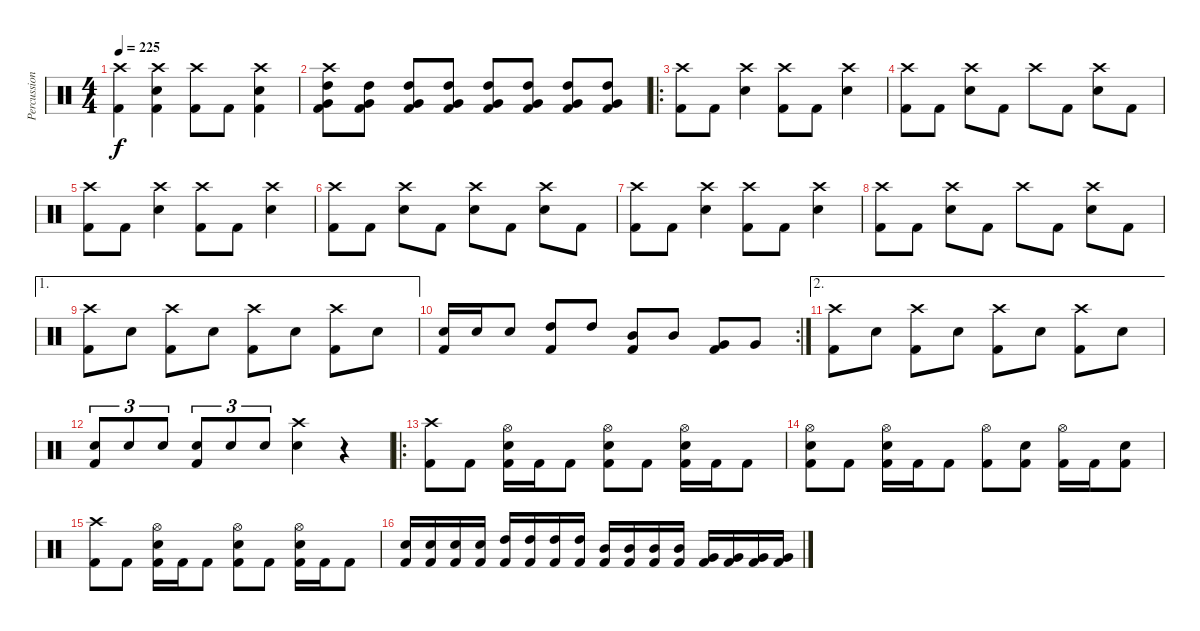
\track ("Percussion" "Percussion") {instrument percussion}
\staff {score}
\articulation defaults
\ts (4 4)
\tempo 225
\clef neutral
\ks c
("Crash high (hit)" "Kick (hit) 2").4{dy f} ("Crash high (hit)" "Snare (hit) 2" "Kick (hit) 2").4 ("Crash high (hit)" "Kick (hit) 2").8 "Kick (hit) 2".8 ("Crash high (hit)" "Snare (hit) 2" "Kick (hit) 2").4 |
("Crash high (hit)" "High Tom (hit)" "Very Low Tom (hit)" "Kick (hit) 2").8 ("High Tom (hit)" "Very Low Tom (hit)" "Kick (hit) 2").8 ("High Tom (hit)" "Very Low Tom (hit)" "Kick (hit) 2").8 ("High Tom (hit)" "Very Low Tom (hit)" "Kick (hit) 2").8 ("High Tom (hit)" "Very Low Tom (hit)" "Kick (hit) 2").8 ("High Tom (hit)" "Very Low Tom (hit)" "Kick (hit) 2").8 ("High Tom (hit)" "Very Low Tom (hit)" "Kick (hit) 2").8 ("High Tom (hit)" "Very Low Tom (hit)" "Kick (hit) 2").8 |
\ro
("Crash high (hit)" "Kick (hit) 2").8 "Kick (hit) 2".8 ("Crash high (hit)" "Snare (hit) 2").4 ("Crash high (hit)" "Kick (hit) 2").8 "Kick (hit) 2".8 ("Crash high (hit)" "Snare (hit) 2").4 |
("Crash high (hit)" "Kick (hit) 2").8 "Kick (hit) 2".8 ("Crash high (hit)" "Snare (hit) 2").8 "Kick (hit) 2".8 "Crash high (hit)".8 "Kick (hit) 2".8 ("Crash high (hit)" "Snare (hit) 2").8 "Kick (hit) 2".8 |
("Crash high (hit)" "Kick (hit) 2").8 "Kick (hit) 2".8 ("Crash high (hit)" "Snare (hit) 2").4 ("Crash high (hit)" "Kick (hit) 2").8 "Kick (hit) 2".8 ("Crash high (hit)" "Snare (hit) 2").4 |
("Crash high (hit)" "Kick (hit) 2").8 "Kick (hit) 2".8 ("Crash high (hit)" "Snare (hit) 2").8 "Kick (hit) 2".8 ("Crash high (hit)" "Snare (hit) 2").8 "Kick (hit) 2".8 ("Crash high (hit)" "Snare (hit) 2").8 "Kick (hit) 2".8 |
("Crash high (hit)" "Kick (hit) 2").8 "Kick (hit) 2".8 ("Crash high (hit)" "Snare (hit) 2").4 ("Crash high (hit)" "Kick (hit) 2").8 "Kick (hit) 2".8 ("Crash high (hit)" "Snare (hit) 2").4 |
("Crash high (hit)" "Kick (hit) 2").8 "Kick (hit) 2".8 ("Crash high (hit)" "Snare (hit) 2").8 "Kick (hit) 2".8 "Crash high (hit)".8 "Kick (hit) 2".8 ("Crash high (hit)" "Snare (hit) 2").8 "Kick (hit) 2".8 |
\ae 1
("Crash high (hit)" "Kick (hit) 2").8 "Snare (hit) 2".8 ("Crash high (hit)" "Kick (hit) 2").8 "Snare (hit) 2".8 ("Crash high (hit)" "Kick (hit) 2").8 "Snare (hit) 2".8 ("Crash high (hit)" "Kick (hit) 2").8 "Snare (hit) 2".8 |
\rc 2
("Snare (hit) 2" "Kick (hit) 2").16 "Snare (hit) 2".16 "Snare (hit) 2".8 ("High Tom (hit)" "Kick (hit) 2").8 "High Tom (hit)".8 ("Mid Tom (hit)" "Kick (hit) 2").8 "Mid Tom (hit)".8 ("Very Low Tom (hit)" "Kick (hit) 2").8 "Very Low Tom (hit)".8 |
\ae 2
("Crash high (hit)" "Kick (hit) 2").8 "Snare (hit) 2".8 ("Crash high (hit)" "Kick (hit) 2").8 "Snare (hit) 2".8 ("Crash high (hit)" "Kick (hit) 2").8 "Snare (hit) 2".8 ("Crash high (hit)" "Kick (hit) 2").8 "Snare (hit) 2".8 |
("Snare (hit) 2" "Kick (hit) 2").8{tu (3 2)} "Snare (hit) 2".8{tu (3 2)} "Snare (hit) 2".8{tu (3 2)} ("Snare (hit) 2" "Kick (hit) 2").8{tu (3 2)} "Snare (hit) 2".8{tu (3 2)} "Snare (hit) 2".8{tu (3 2)} ("Crash high (hit)" "Snare (hit) 2").4 r.4 |
\ro
("Crash high (hit)" "Kick (hit) 2").8 "Kick (hit) 2".8 ("Hi-Hat (open)" "Snare (hit) 2" "Kick (hit) 2").16 "Kick (hit) 2".16 "Kick (hit) 2".8 ("Hi-Hat (open)" "Snare (hit) 2" "Kick (hit) 2").8 "Kick (hit) 2".8 ("Hi-Hat (open)" "Snare (hit) 2" "Kick (hit) 2").16 "Kick (hit) 2".16 "Kick (hit) 2".8 |
("Hi-Hat (open)" "Snare (hit) 2" "Kick (hit) 2").8 "Kick (hit) 2".8 ("Hi-Hat (open)" "Snare (hit) 2" "Kick (hit) 2").16 "Kick (hit) 2".16 "Kick (hit) 2".8 ("Hi-Hat (open)" "Kick (hit) 2").8 ("Snare (hit) 2" "Kick (hit) 2").8 ("Hi-Hat (open)" "Kick (hit) 2").16 "Kick (hit) 2".16 ("Snare (hit) 2" "Kick (hit) 2").8 |
("Crash high (hit)" "Kick (hit) 2").8 "Kick (hit) 2".8 ("Hi-Hat (open)" "Snare (hit) 2" "Kick (hit) 2").16 "Kick (hit) 2".16 "Kick (hit) 2".8 ("Hi-Hat (open)" "Snare (hit) 2" "Kick (hit) 2").8 "Kick (hit) 2".8 ("Hi-Hat (open)" "Snare (hit) 2" "Kick (hit) 2").16 "Kick (hit) 2".16 "Kick (hit) 2".8 |
("Snare (hit) 2" "Kick (hit) 2").16 ("Snare (hit) 2" "Kick (hit) 2").16 ("Snare (hit) 2" "Kick (hit) 2").16 ("Snare (hit) 2" "Kick (hit) 2").16 ("High Tom (hit)" "Kick (hit) 2").16 ("High Tom (hit)" "Kick (hit) 2").16 ("High Tom (hit)" "Kick (hit) 2").16 ("High Tom (hit)" "Kick (hit) 2").16 ("Mid Tom (hit)" "Kick (hit) 2").16 ("Mid Tom (hit)" "Kick (hit) 2").16 ("Mid Tom (hit)" "Kick (hit) 2").16 ("Mid Tom (hit)" "Kick (hit) 2").16 ("Very Low Tom (hit)" "Kick (hit) 2").16 ("Very Low Tom (hit)" "Kick (hit) 2").16 ("Very Low Tom (hit)" "Kick (hit) 2").16 ("Very Low Tom (hit)" "Kick (hit) 2").16
